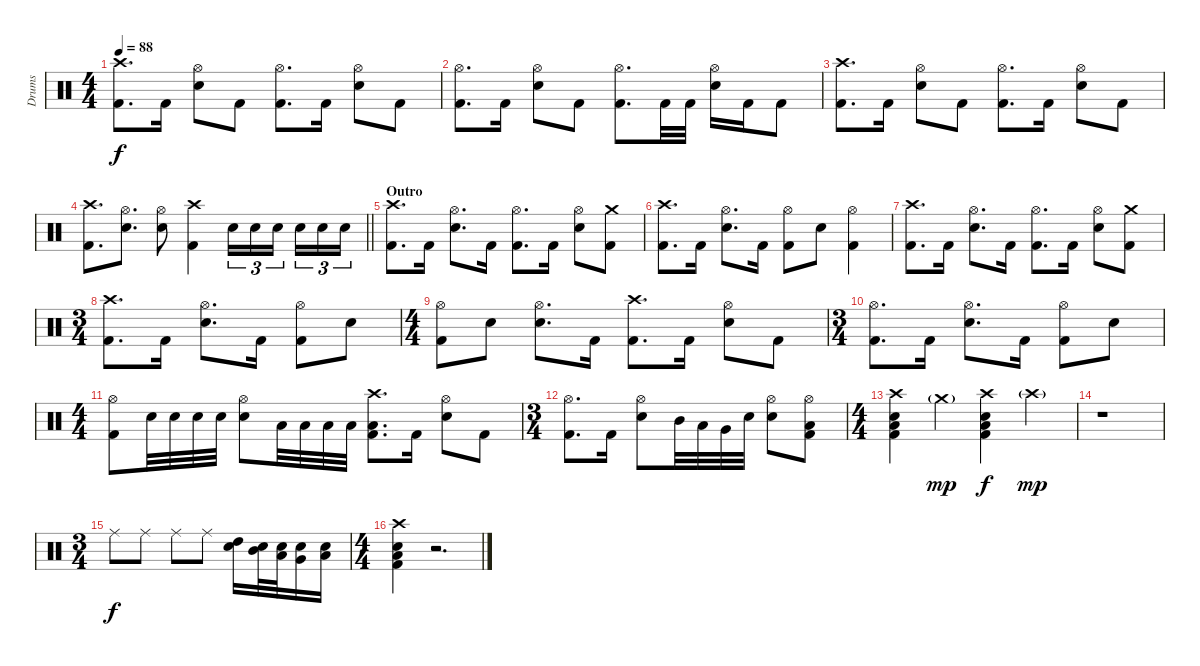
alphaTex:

\track ("Drums" "Drums") {instrument percussion}
\staff {score}
\articulation defaults
\ts (4 4)
\tempo 88
\clef neutral
\ks c
("Crash high (hit)" "Kick (hit) 2").8{d dy f} "Kick (hit) 2".16 ("Hi-Hat (open)" "Snare (hit) 2").8 "Kick (hit) 2".8 ("Hi-Hat (open)" "Kick (hit) 2").8{d} "Kick (hit) 2".16 ("Hi-Hat (open)" "Snare (hit) 2").8 "Kick (hit) 2".8 |
("Hi-Hat (open)" "Kick (hit) 2").8{d} "Kick (hit) 2".16 ("Hi-Hat (open)" "Snare (hit) 2").8 "Kick (hit) 2".8 ("Hi-Hat (open)" "Kick (hit) 2").8{d} "Kick (hit) 2".32 "Kick (hit) 2".32 ("Hi-Hat (open)" "Snare (hit) 2").16 "Kick (hit) 2".16 "Kick (hit) 2".8 |
("Crash high (hit)" "Kick (hit) 2").8{d} "Kick (hit) 2".16 ("Hi-Hat (open)" "Snare (hit) 2").8 "Kick (hit) 2".8 ("Hi-Hat (open)" "Kick (hit) 2").8{d} "Kick (hit) 2".16 ("Hi-Hat (open)" "Snare (hit) 2").8 "Kick (hit) 2".8 |
\barLineRight lightlight
("Crash high (hit)" "Kick (hit) 2").8{d} ("Hi-Hat (open)" "Snare (hit) 2").8{d} ("Hi-Hat (open)" "Snare (hit) 2").8 ("Crash high (hit)" "Kick (hit) 2").4 "Electric Snare (hit)".16{tu (3 2)} "Electric Snare (hit)".16{tu (3 2)} "Electric Snare (hit)".16{tu (3 2) beam splitsecondary} "Electric Snare (hit)".16{tu (3 2)} "Electric Snare (hit)".16{tu (3 2)} "Electric Snare (hit)".16{tu (3 2)} |
\section ("" "Outro")
("Crash high (hit)" "Kick (hit) 2").8{d} "Kick (hit) 2".16 ("Hi-Hat (open)" "Snare (hit) 2").8{d} "Kick (hit) 2".16 ("Hi-Hat (open)" "Kick (hit) 2").8{d} "Kick (hit) 2".16 ("Hi-Hat (open)" "Snare (hit) 2").8 ("Crash medium (hit)" "Kick (hit) 2").8 |
("Crash high (hit)" "Kick (hit) 2").8{d} "Kick (hit) 2".16 ("Hi-Hat (open)" "Snare (hit) 2").8{d} "Kick (hit) 2".16 ("Hi-Hat (open)" "Kick (hit) 2").8 "Snare (hit) 2".8 ("Hi-Hat (open)" "Kick (hit) 2").4 |
("Crash high (hit)" "Kick (hit) 2").8{d} "Kick (hit) 2".16 ("Hi-Hat (open)" "Snare (hit) 2").8{d} "Kick (hit) 2".16 ("Hi-Hat (open)" "Kick (hit) 2").8{d} "Kick (hit) 2".16 ("Hi-Hat (open)" "Snare (hit) 2").8 ("Crash medium (hit)" "Kick (hit) 2").8 |
\ts (3 4)
("Crash high (hit)" "Kick (hit) 2").8{d} "Kick (hit) 2".16 ("Hi-Hat (open)" "Snare (hit) 2").8{d} "Kick (hit) 2".16 ("Hi-Hat (open)" "Kick (hit) 2").8 "Snare (hit) 2".8 |
\ts (4 4)
("Hi-Hat (open)" "Kick (hit) 2").8 "Snare (hit) 2".8 ("Hi-Hat (open)" "Snare (hit) 2").8{d} "Kick (hit) 2".16 ("Crash high (hit)" "Kick (hit) 2").8{d} "Kick (hit) 2".16 ("Hi-Hat (open)" "Snare (hit) 2").8 "Kick (hit) 2".8 |
\ts (3 4)
("Hi-Hat (open)" "Kick (hit) 2").8{d} "Kick (hit) 2".16 ("Hi-Hat (open)" "Snare (hit) 2").8{d} "Kick (hit) 2".16 ("Hi-Hat (open)" "Kick (hit) 2").8 "Snare (hit) 2".8 |
\ts (4 4)
("Hi-Hat (open)" "Kick (hit) 2").8 "Snare (hit) 2".32 "Snare (hit) 2".32 "Snare (hit) 2".32 "Snare (hit) 2".32 ("Hi-Hat (open)" "Snare (hit) 2").8 "Low Tom (hit)".32 "Low Tom (hit)".32 "Low Tom (hit)".32 "Low Tom (hit)".32 ("Crash high (hit)" "Low Tom (hit)" "Kick (hit) 2").8{d} "Kick (hit) 2".16 ("Hi-Hat (open)" "Snare (hit) 2").8 "Kick (hit) 2".8 |
\ts (3 4)
("Hi-Hat (open)" "Kick (hit) 2").8{d} "Kick (hit) 2".16 ("Hi-Hat (open)" "Snare (hit) 2").8 "Mid Tom (hit)".32 "Low Tom (hit)".32 "Very Low Tom (hit)".32 "Snare (hit) 2".32 ("Hi-Hat (open)" "Snare (hit) 2").8 ("Hi-Hat (open)" "Low Tom (hit)" "Kick (hit) 2").8 |
\ts (4 4)
("Crash high (hit)" "Snare (hit) 2" "Low Floor Tom (hit)" "Kick (hit) 2").4 "Crash medium (hit)"{g}.4{dy mp} ("Crash high (hit)" "Snare (hit) 2" "Low Floor Tom (hit)" "Kick (hit) 2").4{dy f} "Crash high (hit)"{g}.4{dy mp} |
r.1 |
\ts (3 4)
"Ride (middle)".8{dy f} "Ride (middle)".8 "Ride (middle)".8 "Ride (middle)".8 ("Snare (hit) 2" "High Tom (hit)").16 ("Snare (hit) 2" "Mid Tom (hit)").32 ("Snare (hit) 2" "Low Tom (hit)").32 ("Snare (hit) 2" "Very Low Tom (hit)").16 ("Snare (hit) 2" "Low Floor Tom (hit)").16 |
\ts (4 4)
("Crash high (hit)" "Snare (hit) 2" "Low Floor Tom (hit)" "Kick (hit) 2").4 r.2{d}
